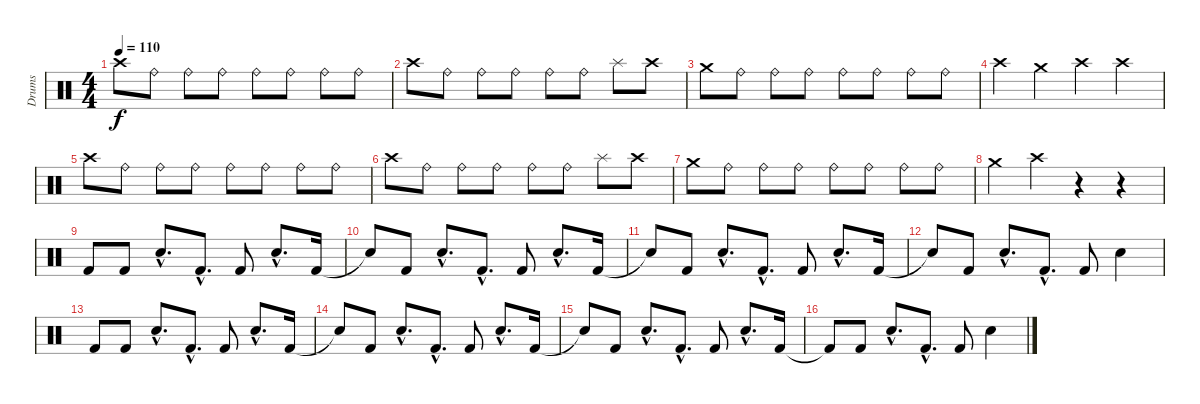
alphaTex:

\track ("Drums" "Drums") {instrument percussion}
\staff {score}
\articulation defaults
\ts (4 4)
\tempo 110
\clef neutral
\ks c "Crash high (hit)".8{dy f} "Ride (bell)".8 "Ride (bell)".8 "Ride (bell)".8 "Ride (bell)".8 "Ride (bell)".8 "Ride (bell)".8 "Ride (bell)".8
|
"Crash high (hit)".8 "Ride (bell)".8 "Ride (bell)".8 "Ride (bell)".8 "Ride (bell)".8 "Ride (bell)".8 "Splash (hit)".8 "Crash high (hit)".8 |
"Crash medium (hit)".8 "Ride (bell)".8 "Ride (bell)".8 "Ride (bell)".8 "Ride (bell)".8 "Ride (bell)".8 "Ride (bell)".8 "Ride (bell)".8 |
"Crash high (hit)".4 "Crash medium (hit)".4 "Crash high (hit)".4 "Crash high (hit)".4 |
"Crash high (hit)".8 "Ride (bell)".8 "Ride (bell)".8 "Ride (bell)".8 "Ride (bell)".8 "Ride (bell)".8 "Ride (bell)".8 "Ride (bell)".8 |
"Crash high (hit)".8 "Ride (bell)".8 "Ride (bell)".8 "Ride (bell)".8 "Ride (bell)".8 "Ride (bell)".8 "Splash (hit)".8 "Crash high (hit)".8 |
"Crash medium (hit)".8 "Ride (bell)".8 "Ride (bell)".8 "Ride (bell)".8 "Ride (bell)".8 "Ride (bell)".8 "Ride (bell)".8 "Ride (bell)".8 |
"Crash medium (hit)".4 "Crash high (hit)".4 r.4 r.4 |
"Kick (hit) 2".8 "Kick (hit) 2".8 "Electric Snare (hit)"{hac}.8{d} "Kick (hit) 2"{hac}.8{d} "Kick (hit) 2".8 "Electric Snare (hit)"{hac}.8{d} "Kick (hit) 2".16 |
"Snare (hit)"{t}.8 "Kick (hit) 2".8 "Electric Snare (hit)"{hac}.8{d} "Kick (hit) 2"{hac}.8{d} "Kick (hit) 2".8 "Electric Snare (hit)"{hac}.8{d} "Kick (hit) 2".16 |
"Snare (hit)"{t}.8 "Kick (hit) 2".8 "Electric Snare (hit)"{hac}.8{d} "Kick (hit) 2"{hac}.8{d} "Kick (hit) 2".8 "Electric Snare (hit)"{hac}.8{d} "Kick (hit) 2".16 |
"Snare (hit)"{t}.8 "Kick (hit) 2".8 "Electric Snare (hit)"{hac}.8{d} "Kick (hit) 2"{hac}.8{d} "Kick (hit) 2".8 "Electric Snare (hit)".4 |
"Kick (hit) 2".8 "Kick (hit) 2".8 "Electric Snare (hit)"{hac}.8{d} "Kick (hit) 2"{hac}.8{d} "Kick (hit) 2".8 "Electric Snare (hit)"{hac}.8{d} "Kick (hit) 2".16 |
"Snare (hit)"{t}.8 "Kick (hit) 2".8 "Electric Snare (hit)"{hac}.8{d} "Kick (hit) 2"{hac}.8{d} "Kick (hit) 2".8 "Electric Snare (hit)"{hac}.8{d} "Kick (hit) 2".16 |
"Snare (hit)"{t}.8 "Kick (hit) 2".8 "Electric Snare (hit)"{hac}.8{d} "Kick (hit) 2"{hac}.8{d} "Kick (hit) 2".8 "Electric Snare (hit)"{hac}.8{d} "Kick (hit) 2".16 |
"Kick (hit) 2"{t}.8 "Kick (hit) 2".8 "Electric Snare (hit)"{hac}.8{d} "Kick (hit) 2"{hac}.8{d} "Kick (hit) 2".8 "Electric Snare (hit)".4
